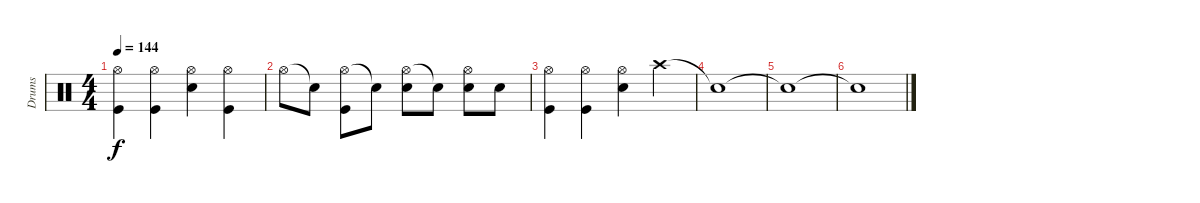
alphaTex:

\track ("Drums               " "Drums     ") {instrument percussion}
\staff {score}
\articulation defaults
\ts (4 4)
\tempo 144
\clef neutral
\ks c
("Hi-Hat (open)" "Kick (hit)").4{dy f} ("Hi-Hat (open)" "Kick (hit)").4 ("Hi-Hat (open)" "Snare (hit) 2").4 ("Hi-Hat (open)" "Kick (hit)").4 |
"Hi-Hat (open)".8 "Snare (hit)"{t}.8 ("Hi-Hat (open)" "Kick (hit)").8 "Snare (hit)"{t}.8 ("Hi-Hat (open)" "Snare (hit) 2").8 "Snare (hit)"{t}.8 ("Hi-Hat (open)" "Snare (hit) 2").8 "Snare (hit) 2".8 |
("Hi-Hat (open)" "Kick (hit)").4 ("Hi-Hat (open)" "Kick (hit)").4 ("Hi-Hat (open)" "Snare (hit) 2").4 "Crash high (hit)".4 |
"Snare (hit)"{t}.1 |
"Snare (hit)"{t}.1 |
"Snare (hit)"{t}.1
